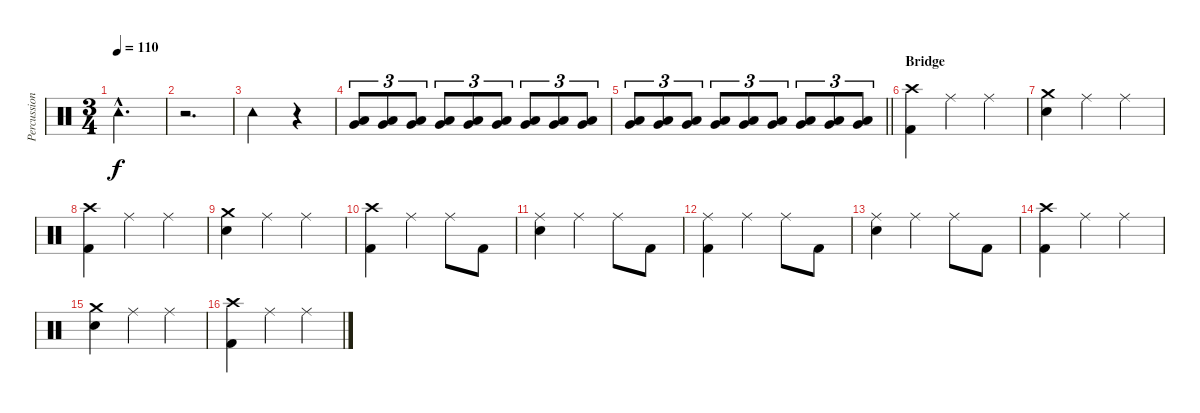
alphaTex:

\track ("Percussion" "Percussion") {instrument percussion}
\staff {score}
\articulation defaults
\ts (3 4)
\tempo 110
\clef neutral
\ks c "Tambourine (hit)"{hac}.2{d dy f}
|
r.2{d} |
"Tambourine (hit)".2 r.4{volume 6} |
("Low Tom (hit)" "Very Low Tom (hit)").8{tu (3 2) volume 13} ("Low Tom (hit)" "Very Low Tom (hit)").8{tu (3 2)} ("Low Tom (hit)" "Very Low Tom (hit)").8{tu (3 2)} ("Low Tom (hit)" "Very Low Tom (hit)").8{tu (3 2)} ("Low Tom (hit)" "Very Low Tom (hit)").8{tu (3 2)} ("Low Tom (hit)" "Very Low Tom (hit)").8{tu (3 2)} ("Low Tom (hit)" "Very Low Tom (hit)").8{tu (3 2)} ("Low Tom (hit)" "Very Low Tom (hit)").8{tu (3 2)} ("Low Tom (hit)" "Very Low Tom (hit)").8{tu (3 2)} |
\barLineRight lightlight
("Low Tom (hit)" "Very Low Tom (hit)").8{tu (3 2)} ("Low Tom (hit)" "Very Low Tom (hit)").8{tu (3 2)} ("Low Tom (hit)" "Very Low Tom (hit)").8{tu (3 2)} ("Low Tom (hit)" "Very Low Tom (hit)").8{tu (3 2)} ("Low Tom (hit)" "Very Low Tom (hit)").8{tu (3 2)} ("Low Tom (hit)" "Very Low Tom (hit)").8{tu (3 2)} ("Low Tom (hit)" "Very Low Tom (hit)").8{tu (3 2)} ("Low Tom (hit)" "Very Low Tom (hit)").8{tu (3 2)} ("Low Tom (hit)" "Very Low Tom (hit)").8{tu (3 2)} |
\section ("" "Bridge")
("Crash high (hit)" "Kick (hit) 2").4 "Ride (middle)".4 "Ride (middle)".4 |
("Crash medium (hit)" "Snare (hit) 2").4 "Ride (middle)".4 "Ride (middle)".4 |
("Crash high (hit)" "Kick (hit) 2").4 "Ride (middle)".4 "Ride (middle)".4 |
("Crash medium (hit)" "Snare (hit) 2").4 "Ride (middle)".4 "Ride (middle)".4 |
("Crash high (hit)" "Kick (hit) 2").4 "Ride (middle)".4 "Ride (middle)".8 "Kick (hit) 2".8 |
("Ride (middle)" "Snare (hit) 2").4 "Ride (middle)".4 "Ride (middle)".8 "Kick (hit) 2".8 |
("Ride (middle)" "Kick (hit) 2").4 "Ride (middle)".4 "Ride (middle)".8 "Kick (hit) 2".8 |
("Ride (middle)" "Snare (hit) 2").4 "Ride (middle)".4 "Ride (middle)".8 "Kick (hit) 2".8 |
("Crash high (hit)" "Kick (hit) 2").4 "Ride (middle)".4 "Ride (middle)".4 |
("Crash medium (hit)" "Snare (hit) 2").4 "Ride (middle)".4 "Ride (middle)".4 |
("Crash high (hit)" "Kick (hit) 2").4 "Ride (middle)".4 "Ride (middle)".4
